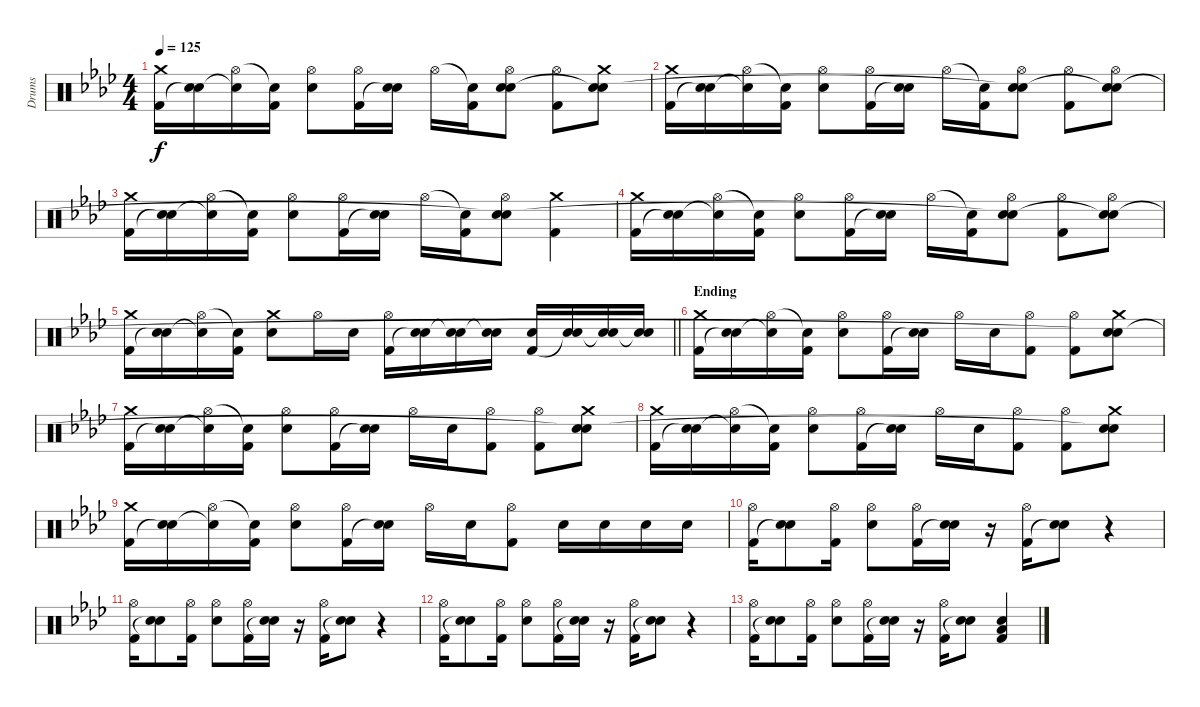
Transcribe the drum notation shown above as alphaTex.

\track ("Drums" "Drums") {instrument percussion}
\staff {score}
\articulation defaults
\ts (4 4)
\tempo 125
\clef neutral
\ks ab
("Crash medium (hit)" "Kick (hit) 2").16{dy f} ("Electric Snare (hit)" "Snare (hit)"{t}).16 ("Hi-Hat (open)" "Snare (hit)"{t}).16 ("Snare (hit)"{t} "Kick (hit) 2").16 ("Hi-Hat (open)" "Electric Snare (hit)").8 ("Hi-Hat (open)" "Kick (hit) 2").16 ("Electric Snare (hit)" "Snare (hit)"{t}).16 "Hi-Hat (open)".16 ("Snare (hit)"{t} "Kick (hit) 2").16 ("Hi-Hat (open)" "Electric Snare (hit)" "Snare (hit)"{t}).8 ("Hi-Hat (open)" "Kick (hit) 2").8 ("Crash medium (hit)" "Electric Snare (hit)" "Snare (hit)"{t}).8 |
("Crash medium (hit)" "Kick (hit) 2").16 ("Electric Snare (hit)" "Snare (hit)"{t}).16 ("Hi-Hat (open)" "Snare (hit)"{t}).16 ("Snare (hit)"{t} "Kick (hit) 2").16 ("Hi-Hat (open)" "Electric Snare (hit)").8 ("Hi-Hat (open)" "Kick (hit) 2").16 ("Electric Snare (hit)" "Snare (hit)"{t}).16 "Hi-Hat (open)".16 ("Snare (hit)"{t} "Kick (hit) 2").16 ("Hi-Hat (open)" "Electric Snare (hit)" "Snare (hit)"{t}).8 ("Hi-Hat (open)" "Kick (hit) 2").8 ("Hi-Hat (open)" "Electric Snare (hit)" "Snare (hit)"{t}).8 |
("Crash medium (hit)" "Kick (hit) 2").16 ("Electric Snare (hit)" "Snare (hit)"{t}).16 ("Hi-Hat (open)" "Snare (hit)"{t}).16 ("Snare (hit)"{t} "Kick (hit) 2").16 ("Hi-Hat (open)" "Electric Snare (hit)").8 ("Hi-Hat (open)" "Kick (hit) 2").16 ("Electric Snare (hit)" "Snare (hit)"{t}).16 "Hi-Hat (open)".16 ("Snare (hit)"{t} "Kick (hit) 2").16 ("Hi-Hat (open)" "Electric Snare (hit)" "Snare (hit)"{t}).8 ("Crash medium (hit)" "Kick (hit) 2").4 |
("Crash medium (hit)" "Kick (hit) 2").16 ("Electric Snare (hit)" "Snare (hit)"{t}).16 ("Hi-Hat (open)" "Snare (hit)"{t}).16 ("Snare (hit)"{t} "Kick (hit) 2").16 ("Hi-Hat (open)" "Electric Snare (hit)").8 ("Hi-Hat (open)" "Kick (hit) 2").16 ("Electric Snare (hit)" "Snare (hit)"{t}).16 "Hi-Hat (open)".16 ("Snare (hit)"{t} "Kick (hit) 2").16 ("Hi-Hat (open)" "Electric Snare (hit)" "Snare (hit)"{t}).8 ("Hi-Hat (open)" "Kick (hit) 2").8 ("Hi-Hat (open)" "Electric Snare (hit)" "Snare (hit)"{t}).8 |
\barLineRight lightlight
("Crash medium (hit)" "Kick (hit) 2").16 ("Electric Snare (hit)" "Snare (hit)"{t}).16 ("Hi-Hat (open)" "Snare (hit)"{t}).16 ("Snare (hit)"{t} "Kick (hit) 2").16 ("Crash medium (hit)" "Electric Snare (hit)").8 "Hi-Hat (open)".16 "Electric Snare (hit)".16 ("Hi-Hat (open)" "Kick (hit) 2").16 ("Electric Snare (hit)" "Snare (hit)"{t}).16 ("Electric Snare (hit)" "Snare (hit)"{t}).16 ("Electric Snare (hit)" "Snare (hit)"{t}).16 ("Electric Snare (hit)" "Kick (hit) 2").16 ("Electric Snare (hit)" "Snare (hit)"{t}).16 ("Electric Snare (hit)" "Snare (hit)"{t}).16 ("Electric Snare (hit)" "Snare (hit)"{t}).16 |
\section ("" "Ending")
("Crash medium (hit)" "Kick (hit) 2").16 ("Electric Snare (hit)" "Snare (hit)"{t}).16 ("Hi-Hat (open)" "Snare (hit)"{t}).16 ("Snare (hit)"{t} "Kick (hit) 2").16 ("Hi-Hat (open)" "Electric Snare (hit)").8 ("Hi-Hat (open)" "Kick (hit) 2").16 ("Electric Snare (hit)" "Snare (hit)"{t}).16 "Hi-Hat (open)".16 "Electric Snare (hit)".16 ("Hi-Hat (open)" "Kick (hit) 2").8 ("Hi-Hat (open)" "Kick (hit) 2").8 ("Crash medium (hit)" "Electric Snare (hit)" "Snare (hit)"{t}).8 |
("Crash medium (hit)" "Kick (hit) 2").16 ("Electric Snare (hit)" "Snare (hit)"{t}).16 ("Hi-Hat (open)" "Snare (hit)"{t}).16 ("Snare (hit)"{t} "Kick (hit) 2").16 ("Hi-Hat (open)" "Electric Snare (hit)").8 ("Hi-Hat (open)" "Kick (hit) 2").16 ("Electric Snare (hit)" "Snare (hit)"{t}).16 "Hi-Hat (open)".16 "Electric Snare (hit)".16 ("Hi-Hat (open)" "Kick (hit) 2").8 ("Hi-Hat (open)" "Kick (hit) 2").8 ("Crash medium (hit)" "Electric Snare (hit)" "Snare (hit)"{t}).8 |
("Crash medium (hit)" "Kick (hit) 2").16 ("Electric Snare (hit)" "Snare (hit)"{t}).16 ("Hi-Hat (open)" "Snare (hit)"{t}).16 ("Snare (hit)"{t} "Kick (hit) 2").16 ("Hi-Hat (open)" "Electric Snare (hit)").8 ("Hi-Hat (open)" "Kick (hit) 2").16 ("Electric Snare (hit)" "Snare (hit)"{t}).16 "Hi-Hat (open)".16 "Electric Snare (hit)".16 ("Hi-Hat (open)" "Kick (hit) 2").8 ("Hi-Hat (open)" "Kick (hit) 2").8 ("Crash medium (hit)" "Electric Snare (hit)" "Snare (hit)"{t}).8 |
("Crash medium (hit)" "Kick (hit) 2").16 ("Electric Snare (hit)" "Snare (hit)"{t}).16 ("Hi-Hat (open)" "Snare (hit)"{t}).16 ("Snare (hit)"{t} "Kick (hit) 2").16 ("Hi-Hat (open)" "Electric Snare (hit)").8 ("Hi-Hat (open)" "Kick (hit) 2").16 ("Electric Snare (hit)" "Snare (hit)"{t}).16 "Hi-Hat (open)".16 "Electric Snare (hit)".16 ("Hi-Hat (open)" "Kick (hit) 2").8 "Electric Snare (hit)".16 "Electric Snare (hit)".16 "Electric Snare (hit)".16 "Electric Snare (hit)".16 |
("Hi-Hat (open)" "Kick (hit) 2").16 ("Electric Snare (hit)" "Snare (hit)"{t}).8 ("Hi-Hat (open)" "Kick (hit) 2").16 ("Hi-Hat (open)" "Electric Snare (hit)").8 ("Hi-Hat (open)" "Kick (hit) 2").16 ("Electric Snare (hit)" "Snare (hit)"{t}).16 r.16 ("Hi-Hat (open)" "Kick (hit) 2").16 ("Electric Snare (hit)" "Snare (hit)"{t}).8 r.4 |
("Hi-Hat (open)" "Kick (hit) 2").16 ("Electric Snare (hit)" "Snare (hit)"{t}).8 ("Hi-Hat (open)" "Kick (hit) 2").16 ("Hi-Hat (open)" "Electric Snare (hit)").8 ("Hi-Hat (open)" "Kick (hit) 2").16 ("Electric Snare (hit)" "Snare (hit)"{t}).16 r.16 ("Hi-Hat (open)" "Kick (hit) 2").16 ("Electric Snare (hit)" "Snare (hit)"{t}).8 r.4 |
("Hi-Hat (open)" "Kick (hit) 2").16 ("Electric Snare (hit)" "Snare (hit)"{t}).8 ("Hi-Hat (open)" "Kick (hit) 2").16 ("Hi-Hat (open)" "Electric Snare (hit)").8 ("Hi-Hat (open)" "Kick (hit) 2").16 ("Electric Snare (hit)" "Snare (hit)"{t}).16 r.16 ("Hi-Hat (open)" "Kick (hit) 2").16 ("Electric Snare (hit)" "Snare (hit)"{t}).8 r.4 |
("Hi-Hat (open)" "Kick (hit) 2").16 ("Electric Snare (hit)" "Snare (hit)"{t}).8 ("Hi-Hat (open)" "Kick (hit) 2").16 ("Hi-Hat (open)" "Electric Snare (hit)").8 ("Hi-Hat (open)" "Kick (hit) 2").16 ("Electric Snare (hit)" "Snare (hit)"{t}).16 r.16 ("Hi-Hat (open)" "Kick (hit) 2").16 ("Electric Snare (hit)" "Snare (hit)"{t}).8 ("Electric Snare (hit)" "Low Floor Tom (hit)" "Kick (hit) 2").4
